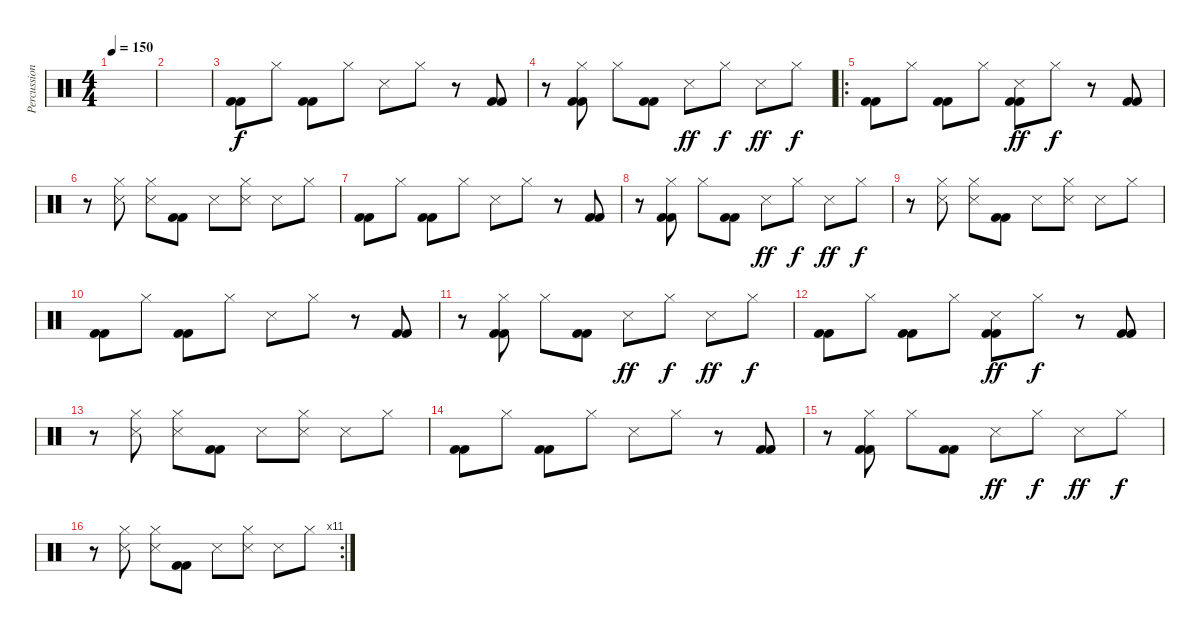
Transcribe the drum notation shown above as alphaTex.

\track ("Percussions" "Percussion") {instrument percussion}
\staff {score}
\articulation defaults
\ts (4 4)
\tempo 150
\clef neutral
\ks c
|
|
("Kick (hit) 2" "Kick (hit) 2").8 "Hi-Hat (closed)".8 ("Kick (hit) 2" "Kick (hit) 2").8 "Hi-Hat (closed)".8 "Snare (side stick) 3".8 "Hi-Hat (closed)".8 r.8 ("Kick (hit) 2" "Kick (hit) 2").8 |
r.8 ("Kick (hit) 2" "Kick (hit) 2" "Hi-Hat (closed)").8 "Hi-Hat (closed)".8 ("Kick (hit) 2" "Kick (hit) 2").8 "Snare (side stick) 3".8{dy ff} "Hi-Hat (closed)".8{dy f} "Snare (side stick) 3".8{dy ff} "Hi-Hat (closed)".8{dy f} |
\ro
("Kick (hit) 2" "Kick (hit) 2").8 "Hi-Hat (closed)".8 ("Kick (hit) 2" "Kick (hit) 2").8 "Hi-Hat (closed)".8 ("Kick (hit) 2" "Kick (hit) 2" "Snare (side stick) 3").8{dy ff} "Hi-Hat (closed)".8{dy f} r.8 ("Kick (hit) 2" "Kick (hit) 2").8 |
r.8 ("Snare (side stick) 3" "Hi-Hat (closed)").8 ("Snare (side stick) 3" "Hi-Hat (closed)").8 ("Kick (hit) 2" "Kick (hit) 2").8 "Snare (side stick) 3".8 ("Snare (side stick) 3" "Hi-Hat (closed)").8 "Snare (side stick) 3".8 "Hi-Hat (closed)".8 |
("Kick (hit) 2" "Kick (hit) 2").8 "Hi-Hat (closed)".8 ("Kick (hit) 2" "Kick (hit) 2").8 "Hi-Hat (closed)".8 "Snare (side stick) 3".8 "Hi-Hat (closed)".8 r.8 ("Kick (hit) 2" "Kick (hit) 2").8 |
r.8 ("Kick (hit) 2" "Kick (hit) 2" "Hi-Hat (closed)").8 "Hi-Hat (closed)".8 ("Kick (hit) 2" "Kick (hit) 2").8 "Snare (side stick) 3".8{dy ff} "Hi-Hat (closed)".8{dy f} "Snare (side stick) 3".8{dy ff} "Hi-Hat (closed)".8{dy f} |
r.8 ("Snare (side stick) 3" "Hi-Hat (closed)").8 ("Snare (side stick) 3" "Hi-Hat (closed)").8 ("Kick (hit) 2" "Kick (hit) 2").8 "Snare (side stick) 3".8 ("Snare (side stick) 3" "Hi-Hat (closed)").8 "Snare (side stick) 3".8 "Hi-Hat (closed)".8 |
("Kick (hit) 2" "Kick (hit) 2").8 "Hi-Hat (closed)".8 ("Kick (hit) 2" "Kick (hit) 2").8 "Hi-Hat (closed)".8 "Snare (side stick) 3".8 "Hi-Hat (closed)".8 r.8 ("Kick (hit) 2" "Kick (hit) 2").8 |
r.8 ("Kick (hit) 2" "Kick (hit) 2" "Hi-Hat (closed)").8 "Hi-Hat (closed)".8 ("Kick (hit) 2" "Kick (hit) 2").8 "Snare (side stick) 3".8{dy ff} "Hi-Hat (closed)".8{dy f} "Snare (side stick) 3".8{dy ff} "Hi-Hat (closed)".8{dy f} |
("Kick (hit) 2" "Kick (hit) 2").8 "Hi-Hat (closed)".8 ("Kick (hit) 2" "Kick (hit) 2").8 "Hi-Hat (closed)".8 ("Kick (hit) 2" "Kick (hit) 2" "Snare (side stick) 3").8{dy ff} "Hi-Hat (closed)".8{dy f} r.8 ("Kick (hit) 2" "Kick (hit) 2").8 |
r.8 ("Snare (side stick) 3" "Hi-Hat (closed)").8 ("Snare (side stick) 3" "Hi-Hat (closed)").8 ("Kick (hit) 2" "Kick (hit) 2").8 "Snare (side stick) 3".8 ("Snare (side stick) 3" "Hi-Hat (closed)").8 "Snare (side stick) 3".8 "Hi-Hat (closed)".8 |
("Kick (hit) 2" "Kick (hit) 2").8 "Hi-Hat (closed)".8 ("Kick (hit) 2" "Kick (hit) 2").8 "Hi-Hat (closed)".8 "Snare (side stick) 3".8 "Hi-Hat (closed)".8 r.8 ("Kick (hit) 2" "Kick (hit) 2").8 |
r.8 ("Kick (hit) 2" "Kick (hit) 2" "Hi-Hat (closed)").8 "Hi-Hat (closed)".8 ("Kick (hit) 2" "Kick (hit) 2").8 "Snare (side stick) 3".8{dy ff} "Hi-Hat (closed)".8{dy f} "Snare (side stick) 3".8{dy ff} "Hi-Hat (closed)".8{dy f} |
\rc 11
r.8 ("Snare (side stick) 3" "Hi-Hat (closed)").8 ("Snare (side stick) 3" "Hi-Hat (closed)").8 ("Kick (hit) 2" "Kick (hit) 2").8 "Snare (side stick) 3".8 ("Snare (side stick) 3" "Hi-Hat (closed)").8 "Snare (side stick) 3".8 "Hi-Hat (closed)".8
